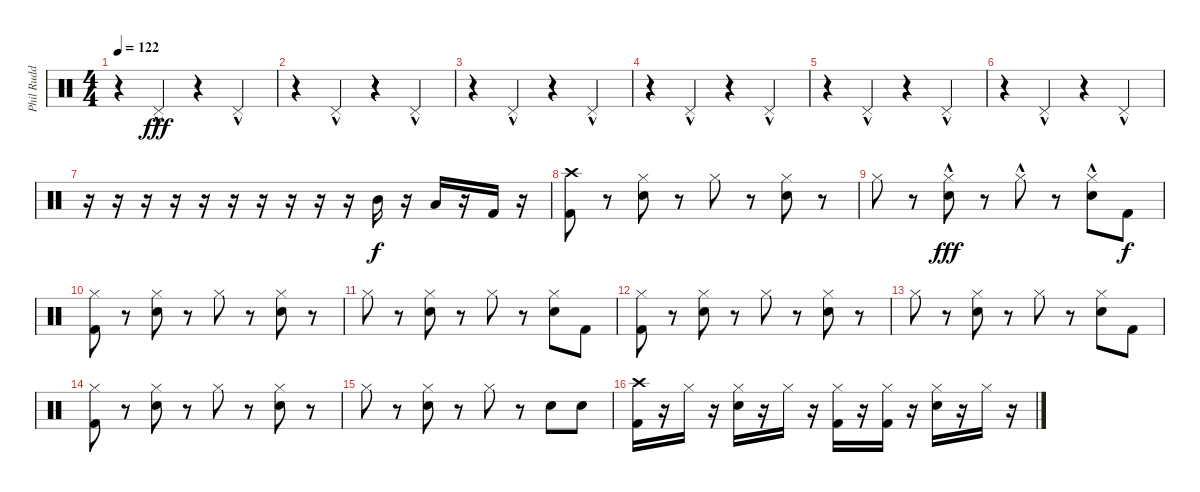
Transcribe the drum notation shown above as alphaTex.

\track ("Phil Rudd" "Phil Rudd") {instrument percussion}
\staff {score}
\articulation defaults
\ts (4 4)
\tempo 122
\clef neutral
\ks c
r.4{dy fff} "Pedal Hi-Hat (hit)"{hac}.4 r.4 "Pedal Hi-Hat (hit)"{hac}.4 |
r.4 "Pedal Hi-Hat (hit)"{hac}.4 r.4 "Pedal Hi-Hat (hit)"{hac}.4 |
r.4 "Pedal Hi-Hat (hit)"{hac}.4 r.4 "Pedal Hi-Hat (hit)"{hac}.4 |
r.4 "Pedal Hi-Hat (hit)"{hac}.4 r.4 "Pedal Hi-Hat (hit)"{hac}.4 |
r.4 "Pedal Hi-Hat (hit)"{hac}.4 r.4 "Pedal Hi-Hat (hit)"{hac}.4 |
r.4 "Pedal Hi-Hat (hit)"{hac}.4 r.4 "Pedal Hi-Hat (hit)"{hac}.4 |
r.16 r.16 r.16 r.16 r.16 r.16 r.16 r.16 r.16 r.16 "Mid Tom (hit)".16{dy f} r.16 "Low Tom (hit)".16 r.16 "Kick (hit) 2".16 r.16 |
("Crash high (hit)" "Kick (hit) 2").8 r.8 ("Hi-Hat (closed)" "Snare (hit) 2").8 r.8 "Hi-Hat (closed)".8 r.8 ("Hi-Hat (closed)" "Snare (hit) 2").8 r.8 |
"Hi-Hat (closed)".8 r.8 ("Hi-Hat (closed)"{hac} "Snare (hit) 2").8{dy fff} r.8 "Hi-Hat (closed)"{hac}.8 r.8 ("Hi-Hat (closed)"{hac} "Snare (hit) 2").8 "Kick (hit) 2".8{dy f} |
("Hi-Hat (closed)" "Kick (hit) 2").8 r.8 ("Hi-Hat (closed)" "Snare (hit) 2").8 r.8 "Hi-Hat (closed)".8 r.8 ("Hi-Hat (closed)" "Snare (hit) 2").8 r.8 |
"Hi-Hat (closed)".8 r.8 ("Hi-Hat (closed)" "Snare (hit) 2").8 r.8 "Hi-Hat (closed)".8 r.8 ("Hi-Hat (closed)" "Snare (hit) 2").8 "Kick (hit) 2".8 |
("Hi-Hat (closed)" "Kick (hit) 2").8 r.8 ("Hi-Hat (closed)" "Snare (hit) 2").8 r.8 "Hi-Hat (closed)".8 r.8 ("Hi-Hat (closed)" "Snare (hit) 2").8 r.8 |
"Hi-Hat (closed)".8 r.8 ("Hi-Hat (closed)" "Snare (hit) 2").8 r.8 "Hi-Hat (closed)".8 r.8 ("Hi-Hat (closed)" "Snare (hit) 2").8 "Kick (hit) 2".8 |
("Hi-Hat (closed)" "Kick (hit) 2").8 r.8 ("Hi-Hat (closed)" "Snare (hit) 2").8 r.8 "Hi-Hat (closed)".8 r.8 ("Hi-Hat (closed)" "Snare (hit) 2").8 r.8 |
"Hi-Hat (closed)".8 r.8 ("Hi-Hat (closed)" "Snare (hit) 2").8 r.8 "Hi-Hat (closed)".8 r.8 "Snare (hit) 2".8 "Snare (hit) 2".8 |
("Crash high (hit)" "Kick (hit) 2").16 r.16 "Hi-Hat (closed)".16 r.16 ("Hi-Hat (closed)" "Snare (hit) 2").16 r.16 "Hi-Hat (closed)".16 r.16 ("Hi-Hat (closed)" "Kick (hit) 2").16 r.16 ("Hi-Hat (closed)" "Kick (hit) 2").16 r.16 ("Hi-Hat (closed)" "Snare (hit) 2").16 r.16 "Hi-Hat (closed)".16 r.16
